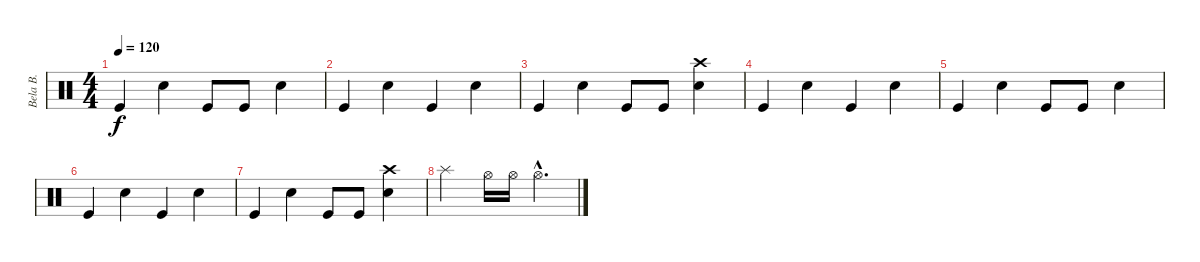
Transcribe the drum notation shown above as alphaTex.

\track ("Bela B." "Bela B.") {instrument percussion}
\staff {score}
\articulation defaults
\ts (4 4)
\tempo 120
\clef neutral
\ks c "Kick (hit)".4{dy f} "Electric Snare (hit)".4 "Kick (hit)".8 "Kick (hit)".8 "Electric Snare (hit)".4
|
"Kick (hit)".4 "Electric Snare (hit)".4 "Kick (hit)".4 "Electric Snare (hit)".4 |
"Kick (hit)".4 "Electric Snare (hit)".4 "Kick (hit)".8 "Kick (hit)".8 ("Electric Snare (hit)" "Crash high (hit)").4 |
"Kick (hit)".4 "Electric Snare (hit)".4 "Kick (hit)".4 "Electric Snare (hit)".4 |
"Kick (hit)".4 "Electric Snare (hit)".4 "Kick (hit)".8 "Kick (hit)".8 "Electric Snare (hit)".4 |
"Kick (hit)".4 "Electric Snare (hit)".4 "Kick (hit)".4 "Electric Snare (hit)".4 |
"Kick (hit)".4 "Electric Snare (hit)".4 "Kick (hit)".8 "Kick (hit)".8 ("Electric Snare (hit)" "Crash high (hit)").4 |
"Splash (hit)".2 "Hi-Hat (open)".16 "Hi-Hat (open)".16 "Hi-Hat (open)"{hac}.4{d}
